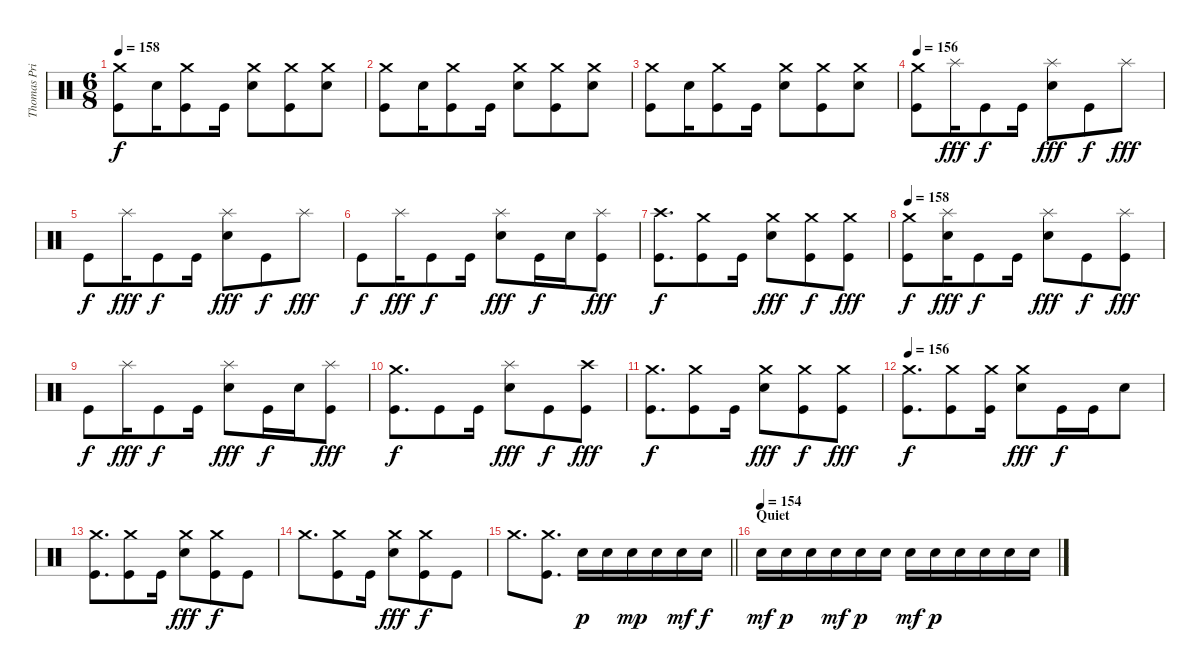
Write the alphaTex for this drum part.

\track ("Thomas Pridgen" "Thomas Pri") {instrument percussion}
\staff {score}
\articulation defaults
\ts (6 8)
\tempo 158
\clef neutral
\ks c
("Crash medium (hit)" "Kick (hit)").8{dy f} "Snare (hit) 2".16 ("Crash medium (hit)" "Kick (hit)").8 "Kick (hit)".16 ("Crash medium (hit)" "Snare (hit) 2").8 ("Crash medium (hit)" "Kick (hit)").8 ("Crash medium (hit)" "Snare (hit) 2").8 |
("Crash medium (hit)" "Kick (hit)").8 "Snare (hit) 2".16 ("Crash medium (hit)" "Kick (hit)").8 "Kick (hit)".16 ("Crash medium (hit)" "Snare (hit) 2").8 ("Crash medium (hit)" "Kick (hit)").8 ("Crash medium (hit)" "Snare (hit) 2").8 |
("Crash medium (hit)" "Kick (hit)").8 "Snare (hit) 2".16 ("Crash medium (hit)" "Kick (hit)").8 "Kick (hit)".16 ("Crash medium (hit)" "Snare (hit) 2").8 ("Crash medium (hit)" "Kick (hit)").8 ("Crash medium (hit)" "Snare (hit) 2").8 |
\tempo 156
("Crash medium (hit)" "Kick (hit)").8 "Splash (hit)".16{dy fff} "Kick (hit)".8{dy f} "Kick (hit)".16 ("Splash (hit)" "Snare (hit) 2").8{dy fff} "Kick (hit)".8{dy f} "Splash (hit)".8{dy fff} |
"Kick (hit)".8{dy f} "Splash (hit)".16{dy fff} "Kick (hit)".8{dy f} "Kick (hit)".16 ("Splash (hit)" "Snare (hit) 2").8{dy fff} "Kick (hit)".8{dy f} "Splash (hit)".8{dy fff} |
"Kick (hit)".8{dy f} "Splash (hit)".16{dy fff} "Kick (hit)".8{dy f} "Kick (hit)".16 ("Splash (hit)" "Snare (hit) 2").8{dy fff} "Kick (hit)".16{dy f} "Snare (hit) 2".16 ("Splash (hit)" "Kick (hit)").8{dy fff} |
("Crash high (hit)" "Kick (hit)").8{d dy f} ("Crash medium (hit)" "Kick (hit)").8 "Kick (hit)".16 ("Crash medium (hit)" "Snare (hit) 2").8{dy fff} ("Crash medium (hit)" "Kick (hit)").8{dy f} ("Crash medium (hit)" "Kick (hit)").8{dy fff} |
\tempo 158
("Crash medium (hit)" "Kick (hit)").8{dy f} ("Splash (hit)" "Snare (hit) 2").16{dy fff} "Kick (hit)".8{dy f} "Kick (hit)".16 ("Splash (hit)" "Snare (hit) 2").8{dy fff} "Kick (hit)".8{dy f} ("Splash (hit)" "Kick (hit)").8{dy fff} |
"Kick (hit)".8{dy f} "Splash (hit)".16{dy fff} "Kick (hit)".8{dy f} "Kick (hit)".16 ("Splash (hit)" "Snare (hit) 2").8{dy fff} "Kick (hit)".16{dy f} "Snare (hit) 2".16 ("Splash (hit)" "Kick (hit)").8{dy fff} |
("Crash medium (hit)" "Kick (hit)").8{d dy f} "Kick (hit)".8 "Kick (hit)".16 ("Splash (hit)" "Snare (hit) 2").8{dy fff} "Kick (hit)".8{dy f} ("Crash high (hit)" "Kick (hit)").8{dy fff} |
("Crash medium (hit)" "Kick (hit)").8{d dy f} ("Crash medium (hit)" "Kick (hit)").8 "Kick (hit)".16 ("Crash medium (hit)" "Snare (hit) 2").8{dy fff} ("Crash medium (hit)" "Kick (hit)").8{dy f} ("Crash medium (hit)" "Kick (hit)").8{dy fff} |
\tempo 156
("Crash medium (hit)" "Kick (hit)").8{d dy f} ("Crash medium (hit)" "Kick (hit)").8 ("Crash medium (hit)" "Kick (hit)").16 ("Crash medium (hit)" "Snare (hit) 2").8{dy fff} "Kick (hit)".16{dy f} "Kick (hit)".16 "Snare (hit) 2".8 |
("Crash medium (hit)" "Kick (hit)").8{d} ("Crash medium (hit)" "Kick (hit)").8 "Kick (hit)".16 ("Crash medium (hit)" "Snare (hit) 2").8{dy fff} ("Crash medium (hit)" "Kick (hit)").8{dy f} "Kick (hit)".8 |
"Crash medium (hit)".8{d} ("Crash medium (hit)" "Kick (hit)").8 "Kick (hit)".16 ("Crash medium (hit)" "Snare (hit) 2").8{dy fff} ("Crash medium (hit)" "Kick (hit)").8{dy f} "Kick (hit)".8 |
\barLineRight lightlight "Crash medium (hit)".8{d}
("Crash medium (hit)" "Kick (hit)").8{d} "Snare (hit) 2".16{dy p} "Snare (hit) 2".16 "Snare (hit) 2".16{dy mp} "Snare (hit) 2".16 "Snare (hit) 2".16{dy mf} "Snare (hit) 2".16{dy f} |
\section ("" "Quiet")
\tempo (154)
"Snare (hit) 2".16{dy mf} "Snare (hit) 2".16{dy p} "Snare (hit) 2".16 "Snare (hit) 2".16{dy mf} "Snare (hit) 2".16{dy p} "Snare (hit) 2".16 "Snare (hit) 2".16{dy mf} "Snare (hit) 2".16{dy p} "Snare (hit) 2".16 "Snare (hit) 2".16 "Snare (hit) 2".16 "Snare (hit) 2".16
